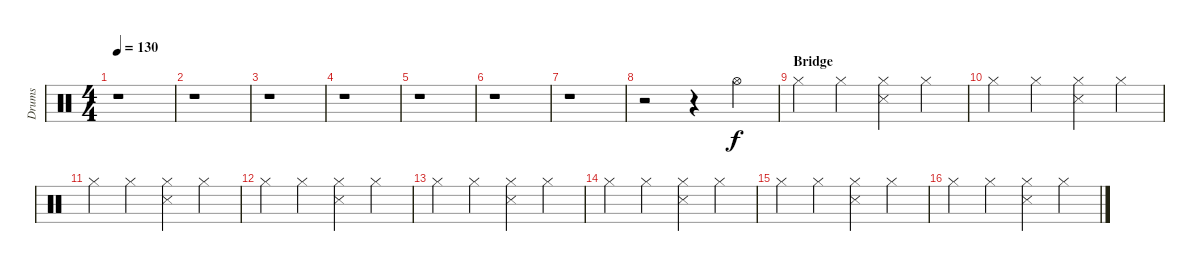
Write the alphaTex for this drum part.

\track ("Drums" "Drums") {instrument percussion}
\staff {score}
\articulation defaults
\ts (4 4)
\tempo 130
\clef neutral
\ks c
r.1{dy f} |
r.1 |
r.1 |
r.1 |
r.1 |
r.1 |
r.1 |
r.2 r.4 "Hi-Hat (open)".4 |
\section ("" "Bridge")
"Hi-Hat (closed)".4 "Hi-Hat (closed)".4 ("Hi-Hat (closed)" "Snare (side stick) 3").4 "Hi-Hat (closed)".4 |
"Hi-Hat (closed)".4 "Hi-Hat (closed)".4 ("Hi-Hat (closed)" "Snare (side stick) 3").4 "Hi-Hat (closed)".4 |
"Hi-Hat (closed)".4 "Hi-Hat (closed)".4 ("Hi-Hat (closed)" "Snare (side stick) 3").4 "Hi-Hat (closed)".4 |
"Hi-Hat (closed)".4 "Hi-Hat (closed)".4 ("Hi-Hat (closed)" "Snare (side stick) 3").4 "Hi-Hat (closed)".4 |
"Hi-Hat (closed)".4 "Hi-Hat (closed)".4 ("Hi-Hat (closed)" "Snare (side stick) 3").4 "Hi-Hat (closed)".4 |
"Hi-Hat (closed)".4 "Hi-Hat (closed)".4 ("Hi-Hat (closed)" "Snare (side stick) 3").4 "Hi-Hat (closed)".4 |
"Hi-Hat (closed)".4 "Hi-Hat (closed)".4 ("Hi-Hat (closed)" "Snare (side stick) 3").4 "Hi-Hat (closed)".4 |
"Hi-Hat (closed)".4 "Hi-Hat (closed)".4 ("Hi-Hat (closed)" "Snare (side stick) 3").4 "Hi-Hat (closed)".4
